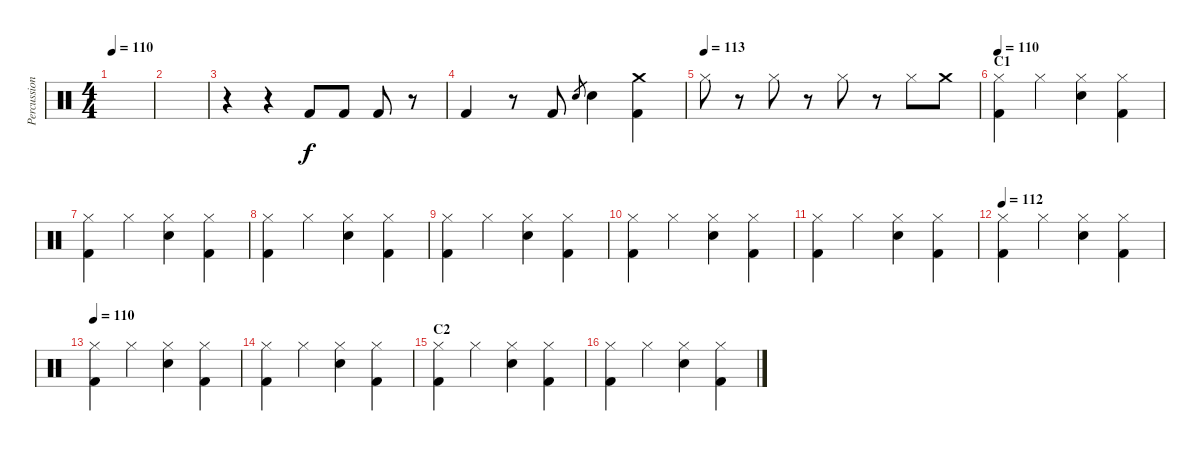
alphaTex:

\track ("Percussion" "Percussion") {instrument percussion}
\staff {score}
\articulation defaults
\ts (4 4)
\tempo 110
\clef neutral
\ks c
|
|
r.4 r.4 "Kick (hit) 2".8 "Kick (hit) 2".8 "Kick (hit) 2".8 r.8 |
"Kick (hit) 2".4 r.8 "Kick (hit) 2".8 "Electric Snare (hit)".8{gr} "Electric Snare (hit)".4 ("Kick (hit) 2" "Crash medium (hit)").4 |
\tempo (113)
"Hi-Hat (closed)".8 r.8 "Hi-Hat (closed)".8 r.8 "Hi-Hat (closed)".8 r.8 "Hi-Hat (closed)".8 "Crash medium (hit)".8 |
\section ("" "C1")
\tempo 110
("Kick (hit) 2" "Hi-Hat (closed)").4 "Hi-Hat (closed)".4 ("Electric Snare (hit)" "Hi-Hat (closed)").4 ("Kick (hit) 2" "Hi-Hat (closed)").4 |
("Kick (hit) 2" "Hi-Hat (closed)").4 "Hi-Hat (closed)".4 ("Electric Snare (hit)" "Hi-Hat (closed)").4 ("Kick (hit) 2" "Hi-Hat (closed)").4 |
("Kick (hit) 2" "Hi-Hat (closed)").4 "Hi-Hat (closed)".4 ("Electric Snare (hit)" "Hi-Hat (closed)").4 ("Kick (hit) 2" "Hi-Hat (closed)").4 |
("Kick (hit) 2" "Hi-Hat (closed)").4 "Hi-Hat (closed)".4 ("Electric Snare (hit)" "Hi-Hat (closed)").4 ("Kick (hit) 2" "Hi-Hat (closed)").4 |
("Kick (hit) 2" "Hi-Hat (closed)").4 "Hi-Hat (closed)".4 ("Electric Snare (hit)" "Hi-Hat (closed)").4 ("Kick (hit) 2" "Hi-Hat (closed)").4 |
("Kick (hit) 2" "Hi-Hat (closed)").4 "Hi-Hat (closed)".4 ("Electric Snare (hit)" "Hi-Hat (closed)").4 ("Kick (hit) 2" "Hi-Hat (closed)").4 |
\tempo 112
("Kick (hit) 2" "Hi-Hat (closed)").4 "Hi-Hat (closed)".4 ("Electric Snare (hit)" "Hi-Hat (closed)").4 ("Kick (hit) 2" "Hi-Hat (closed)").4 |
\tempo 110
("Kick (hit) 2" "Hi-Hat (closed)").4 "Hi-Hat (closed)".4 ("Electric Snare (hit)" "Hi-Hat (closed)").4 ("Kick (hit) 2" "Hi-Hat (closed)").4 |
("Kick (hit) 2" "Hi-Hat (closed)").4 "Hi-Hat (closed)".4 ("Electric Snare (hit)" "Hi-Hat (closed)").4 ("Kick (hit) 2" "Hi-Hat (closed)").4 |
\section ("" "C2")
("Kick (hit) 2" "Hi-Hat (closed)").4 "Hi-Hat (closed)".4 ("Electric Snare (hit)" "Hi-Hat (closed)").4 ("Kick (hit) 2" "Hi-Hat (closed)").4 |
("Kick (hit) 2" "Hi-Hat (closed)").4 "Hi-Hat (closed)".4 ("Electric Snare (hit)" "Hi-Hat (closed)").4 ("Kick (hit) 2" "Hi-Hat (closed)").4
